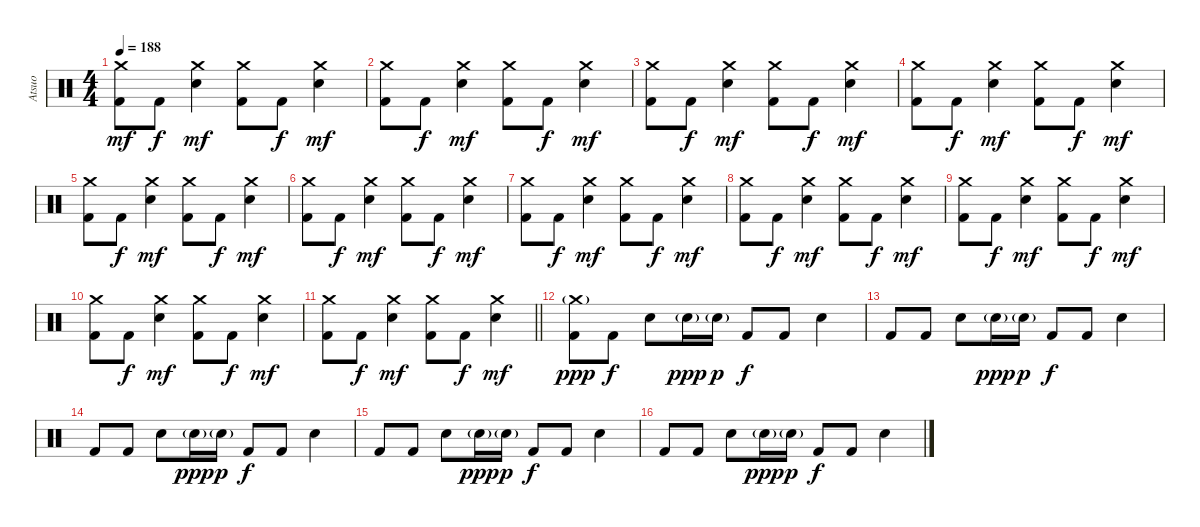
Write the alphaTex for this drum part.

\track ("Atsuo" "Atsuo") {instrument percussion}
\staff {score}
\articulation defaults
\ts (4 4)
\tempo 188
\clef neutral
\ks c
("Crash medium (hit)" "Kick (hit) 2").8{dy mf} "Kick (hit) 2".8{dy f} ("Crash medium (hit)" "Electric Snare (hit)").4{dy mf} ("Crash medium (hit)" "Kick (hit) 2").8 "Kick (hit) 2".8{dy f} ("Crash medium (hit)" "Electric Snare (hit)").4{dy mf} |
("Crash medium (hit)" "Kick (hit) 2").8 "Kick (hit) 2".8{dy f} ("Crash medium (hit)" "Electric Snare (hit)").4{dy mf} ("Crash medium (hit)" "Kick (hit) 2").8 "Kick (hit) 2".8{dy f} ("Crash medium (hit)" "Electric Snare (hit)").4{dy mf} |
("Crash medium (hit)" "Kick (hit) 2").8 "Kick (hit) 2".8{dy f} ("Crash medium (hit)" "Electric Snare (hit)").4{dy mf} ("Crash medium (hit)" "Kick (hit) 2").8 "Kick (hit) 2".8{dy f} ("Crash medium (hit)" "Electric Snare (hit)").4{dy mf} |
("Crash medium (hit)" "Kick (hit) 2").8 "Kick (hit) 2".8{dy f} ("Crash medium (hit)" "Electric Snare (hit)").4{dy mf} ("Crash medium (hit)" "Kick (hit) 2").8 "Kick (hit) 2".8{dy f} ("Crash medium (hit)" "Electric Snare (hit)").4{dy mf} |
("Crash medium (hit)" "Kick (hit) 2").8 "Kick (hit) 2".8{dy f} ("Crash medium (hit)" "Electric Snare (hit)").4{dy mf} ("Crash medium (hit)" "Kick (hit) 2").8 "Kick (hit) 2".8{dy f} ("Crash medium (hit)" "Electric Snare (hit)").4{dy mf} |
("Crash medium (hit)" "Kick (hit) 2").8 "Kick (hit) 2".8{dy f} ("Crash medium (hit)" "Electric Snare (hit)").4{dy mf} ("Crash medium (hit)" "Kick (hit) 2").8 "Kick (hit) 2".8{dy f} ("Crash medium (hit)" "Electric Snare (hit)").4{dy mf} |
("Crash medium (hit)" "Kick (hit) 2").8 "Kick (hit) 2".8{dy f} ("Crash medium (hit)" "Electric Snare (hit)").4{dy mf} ("Crash medium (hit)" "Kick (hit) 2").8 "Kick (hit) 2".8{dy f} ("Crash medium (hit)" "Electric Snare (hit)").4{dy mf} |
("Crash medium (hit)" "Kick (hit) 2").8 "Kick (hit) 2".8{dy f} ("Crash medium (hit)" "Electric Snare (hit)").4{dy mf} ("Crash medium (hit)" "Kick (hit) 2").8 "Kick (hit) 2".8{dy f} ("Crash medium (hit)" "Electric Snare (hit)").4{dy mf} |
("Crash medium (hit)" "Kick (hit) 2").8 "Kick (hit) 2".8{dy f} ("Crash medium (hit)" "Electric Snare (hit)").4{dy mf} ("Crash medium (hit)" "Kick (hit) 2").8 "Kick (hit) 2".8{dy f} ("Crash medium (hit)" "Electric Snare (hit)").4{dy mf} |
("Crash medium (hit)" "Kick (hit) 2").8 "Kick (hit) 2".8{dy f} ("Crash medium (hit)" "Electric Snare (hit)").4{dy mf} ("Crash medium (hit)" "Kick (hit) 2").8 "Kick (hit) 2".8{dy f} ("Crash medium (hit)" "Electric Snare (hit)").4{dy mf} |
\barLineRight lightlight
("Crash medium (hit)" "Kick (hit) 2").8 "Kick (hit) 2".8{dy f} ("Crash medium (hit)" "Electric Snare (hit)").4{dy mf} ("Crash medium (hit)" "Kick (hit) 2").8 "Kick (hit) 2".8{dy f} ("Crash medium (hit)" "Electric Snare (hit)").4{dy mf} |
\section ("" "")
("Crash medium (hit)"{g} "Kick (hit) 2").8{dy ppp} "Kick (hit) 2".8{dy f} "Electric Snare (hit)".8 "Electric Snare (hit)"{g}.16{dy ppp} "Electric Snare (hit)"{g}.16{dy p} "Kick (hit) 2".8{dy f} "Kick (hit) 2".8 "Electric Snare (hit)".4 |
"Kick (hit) 2".8 "Kick (hit) 2".8 "Electric Snare (hit)".8 "Electric Snare (hit)"{g}.16{dy ppp} "Electric Snare (hit)"{g}.16{dy p} "Kick (hit) 2".8{dy f} "Kick (hit) 2".8 "Electric Snare (hit)".4 |
"Kick (hit) 2".8 "Kick (hit) 2".8 "Electric Snare (hit)".8 "Electric Snare (hit)"{g}.16{dy ppp} "Electric Snare (hit)"{g}.16{dy p} "Kick (hit) 2".8{dy f} "Kick (hit) 2".8 "Electric Snare (hit)".4 |
"Kick (hit) 2".8 "Kick (hit) 2".8 "Electric Snare (hit)".8 "Electric Snare (hit)"{g}.16{dy ppp} "Electric Snare (hit)"{g}.16{dy p} "Kick (hit) 2".8{dy f} "Kick (hit) 2".8 "Electric Snare (hit)".4 |
"Kick (hit) 2".8 "Kick (hit) 2".8 "Electric Snare (hit)".8 "Electric Snare (hit)"{g}.16{dy ppp} "Electric Snare (hit)"{g}.16{dy p} "Kick (hit) 2".8{dy f} "Kick (hit) 2".8 "Electric Snare (hit)".4
